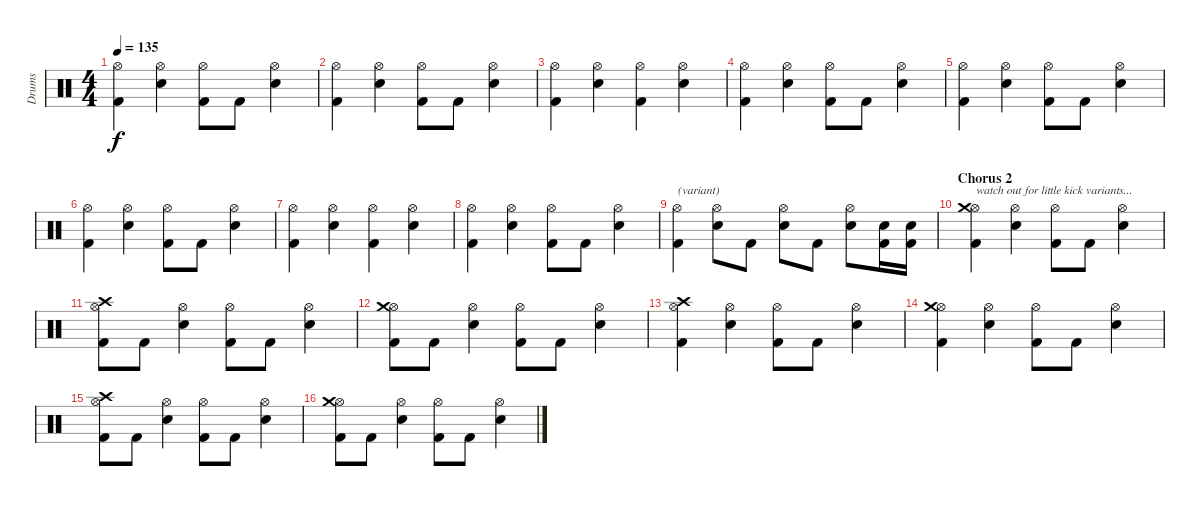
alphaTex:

\track ("Drums" "Drums") {instrument percussion}
\staff {score}
\articulation defaults
\ts (4 4)
\tempo 135
\clef neutral
\ks c
("Hi-Hat (open)" "Kick (hit) 2").4{dy f} ("Hi-Hat (open)" "Snare (hit) 2").4 ("Hi-Hat (open)" "Kick (hit) 2").8 "Kick (hit) 2".8 ("Hi-Hat (open)" "Snare (hit) 2").4 |
("Hi-Hat (open)" "Kick (hit) 2").4 ("Hi-Hat (open)" "Snare (hit) 2").4 ("Hi-Hat (open)" "Kick (hit) 2").8 "Kick (hit) 2".8 ("Hi-Hat (open)" "Snare (hit) 2").4 |
("Hi-Hat (open)" "Kick (hit) 2").4 ("Hi-Hat (open)" "Snare (hit) 2").4 ("Hi-Hat (open)" "Kick (hit) 2").4 ("Hi-Hat (open)" "Snare (hit) 2").4 |
("Hi-Hat (open)" "Kick (hit) 2").4 ("Hi-Hat (open)" "Snare (hit) 2").4 ("Hi-Hat (open)" "Kick (hit) 2").8 "Kick (hit) 2".8 ("Hi-Hat (open)" "Snare (hit) 2").4 |
("Hi-Hat (open)" "Kick (hit) 2").4 ("Hi-Hat (open)" "Snare (hit) 2").4 ("Hi-Hat (open)" "Kick (hit) 2").8 "Kick (hit) 2".8 ("Hi-Hat (open)" "Snare (hit) 2").4 |
("Hi-Hat (open)" "Kick (hit) 2").4 ("Hi-Hat (open)" "Snare (hit) 2").4 ("Hi-Hat (open)" "Kick (hit) 2").8 "Kick (hit) 2".8 ("Hi-Hat (open)" "Snare (hit) 2").4 |
("Hi-Hat (open)" "Kick (hit) 2").4 ("Hi-Hat (open)" "Snare (hit) 2").4 ("Hi-Hat (open)" "Kick (hit) 2").4 ("Hi-Hat (open)" "Snare (hit) 2").4 |
("Hi-Hat (open)" "Kick (hit) 2").4 ("Hi-Hat (open)" "Snare (hit) 2").4 ("Hi-Hat (open)" "Kick (hit) 2").8 "Kick (hit) 2".8 ("Hi-Hat (open)" "Snare (hit) 2").4 |
("Hi-Hat (open)" "Kick (hit) 2").4{txt "(variant)"} ("Hi-Hat (open)" "Snare (hit) 2").8 "Kick (hit) 2".8 ("Hi-Hat (open)" "Snare (hit) 2").8 "Kick (hit) 2".8 ("Hi-Hat (open)" "Snare (hit) 2").8 ("Snare (hit) 2" "Kick (hit) 2").16 ("Snare (hit) 2" "Kick (hit) 2").16 |
\section ("" "Chorus 2")
("Hi-Hat (open)" "Crash medium (hit)" "Kick (hit) 2").4{txt "watch out for little kick variants..."} ("Hi-Hat (open)" "Snare (hit) 2").4 ("Hi-Hat (open)" "Kick (hit) 2").8 "Kick (hit) 2".8 ("Hi-Hat (open)" "Snare (hit) 2").4 |
("Hi-Hat (open)" "Crash high (hit)" "Kick (hit) 2").8 "Kick (hit) 2".8 ("Hi-Hat (open)" "Snare (hit) 2").4 ("Hi-Hat (open)" "Kick (hit) 2").8 "Kick (hit) 2".8 ("Hi-Hat (open)" "Snare (hit) 2").4 |
("Hi-Hat (open)" "Crash medium (hit)" "Kick (hit) 2").8 "Kick (hit) 2".8 ("Hi-Hat (open)" "Snare (hit) 2").4 ("Hi-Hat (open)" "Kick (hit) 2").8 "Kick (hit) 2".8 ("Hi-Hat (open)" "Snare (hit) 2").4 |
("Hi-Hat (open)" "Crash high (hit)" "Kick (hit) 2").4 ("Hi-Hat (open)" "Snare (hit) 2").4 ("Hi-Hat (open)" "Kick (hit) 2").8 "Kick (hit) 2".8 ("Hi-Hat (open)" "Snare (hit) 2").4 |
("Hi-Hat (open)" "Crash medium (hit)" "Kick (hit) 2").4 ("Hi-Hat (open)" "Snare (hit) 2").4 ("Hi-Hat (open)" "Kick (hit) 2").8 "Kick (hit) 2".8 ("Hi-Hat (open)" "Snare (hit) 2").4 |
("Hi-Hat (open)" "Crash high (hit)" "Kick (hit) 2").8 "Kick (hit) 2".8 ("Hi-Hat (open)" "Snare (hit) 2").4 ("Hi-Hat (open)" "Kick (hit) 2").8 "Kick (hit) 2".8 ("Hi-Hat (open)" "Snare (hit) 2").4 |
("Hi-Hat (open)" "Crash medium (hit)" "Kick (hit) 2").8 "Kick (hit) 2".8 ("Hi-Hat (open)" "Snare (hit) 2").4 ("Hi-Hat (open)" "Kick (hit) 2").8 "Kick (hit) 2".8 ("Hi-Hat (open)" "Snare (hit) 2").4
